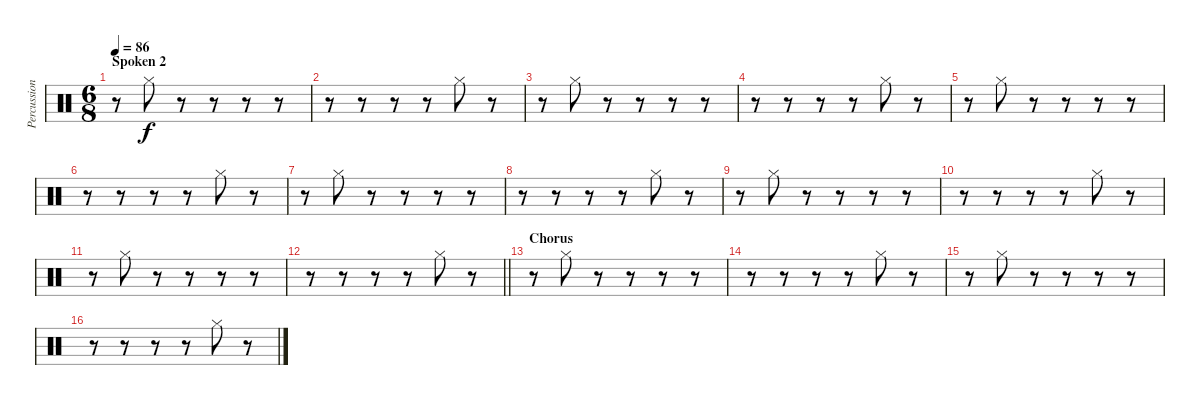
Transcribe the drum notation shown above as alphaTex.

\track ("Percussion" "Percussion") {instrument percussion}
\staff {score}
\articulation defaults
\ts (6 8)
\section ("" "Spoken 2")
\tempo 86
\clef neutral
\ks c
r.8{dy f} "Hi-Hat (closed)".8 r.8 r.8 r.8 r.8 |
r.8 r.8 r.8 r.8 "Hi-Hat (closed)".8 r.8 |
r.8 "Hi-Hat (closed)".8 r.8 r.8 r.8 r.8 |
r.8 r.8 r.8 r.8 "Hi-Hat (closed)".8 r.8 |
r.8 "Hi-Hat (closed)".8 r.8 r.8 r.8 r.8 |
r.8 r.8 r.8 r.8 "Hi-Hat (closed)".8 r.8 |
r.8 "Hi-Hat (closed)".8 r.8 r.8 r.8 r.8 |
r.8 r.8 r.8 r.8 "Hi-Hat (closed)".8 r.8 |
r.8 "Hi-Hat (closed)".8 r.8 r.8 r.8 r.8 |
r.8 r.8 r.8 r.8 "Hi-Hat (closed)".8 r.8 |
r.8 "Hi-Hat (closed)".8 r.8 r.8 r.8 r.8 |
\barLineRight lightlight
r.8 r.8 r.8 r.8 "Hi-Hat (closed)".8 r.8 |
\section ("" "Chorus")
r.8 "Hi-Hat (closed)".8 r.8 r.8 r.8 r.8 |
r.8 r.8 r.8 r.8 "Hi-Hat (closed)".8 r.8 |
r.8 "Hi-Hat (closed)".8 r.8 r.8 r.8 r.8 |
r.8 r.8 r.8 r.8 "Hi-Hat (closed)".8 r.8
